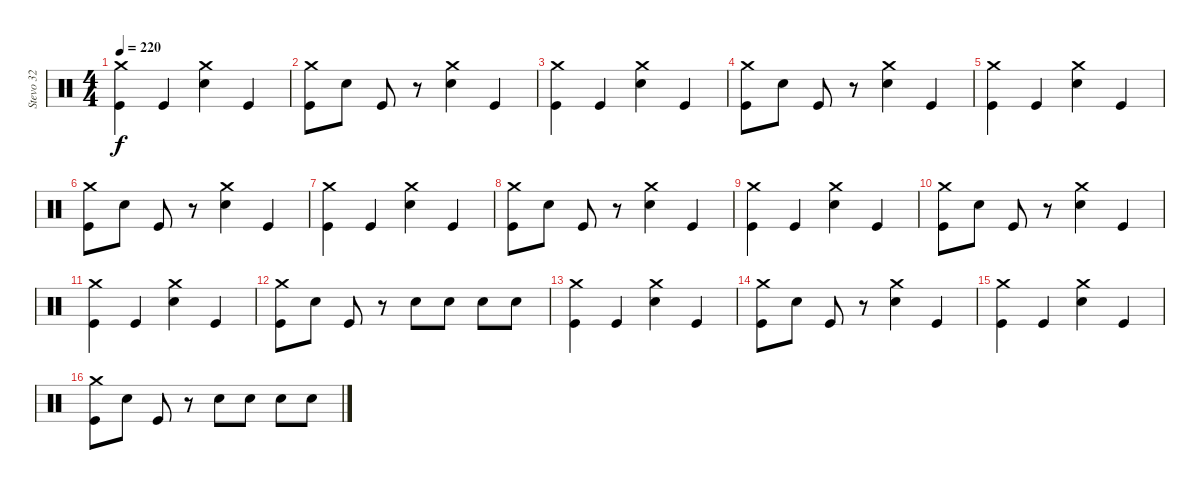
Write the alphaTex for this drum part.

\track ("Stevo 32" "Stevo 32") {instrument percussion}
\staff {score}
\articulation defaults
\ts (4 4)
\tempo 220
\clef neutral
\ks c
("Crash medium (hit)" "Kick (hit)").4{dy f} "Kick (hit)".4 ("Crash medium (hit)" "Electric Snare (hit)").4 "Kick (hit)".4 |
("Crash medium (hit)" "Kick (hit)").8 "Electric Snare (hit)".8 "Kick (hit)".8 r.8 ("Crash medium (hit)" "Electric Snare (hit)").4 "Kick (hit)".4 |
("Crash medium (hit)" "Kick (hit)").4 "Kick (hit)".4 ("Crash medium (hit)" "Electric Snare (hit)").4 "Kick (hit)".4 |
("Crash medium (hit)" "Kick (hit)").8 "Electric Snare (hit)".8 "Kick (hit)".8 r.8 ("Crash medium (hit)" "Electric Snare (hit)").4 "Kick (hit)".4 |
("Crash medium (hit)" "Kick (hit)").4 "Kick (hit)".4 ("Crash medium (hit)" "Electric Snare (hit)").4 "Kick (hit)".4 |
("Crash medium (hit)" "Kick (hit)").8 "Electric Snare (hit)".8 "Kick (hit)".8 r.8 ("Crash medium (hit)" "Electric Snare (hit)").4 "Kick (hit)".4 |
("Crash medium (hit)" "Kick (hit)").4 "Kick (hit)".4 ("Crash medium (hit)" "Electric Snare (hit)").4 "Kick (hit)".4 |
("Crash medium (hit)" "Kick (hit)").8 "Electric Snare (hit)".8 "Kick (hit)".8 r.8 ("Crash medium (hit)" "Electric Snare (hit)").4 "Kick (hit)".4 |
("Crash medium (hit)" "Kick (hit)").4 "Kick (hit)".4 ("Crash medium (hit)" "Electric Snare (hit)").4 "Kick (hit)".4 |
("Crash medium (hit)" "Kick (hit)").8 "Electric Snare (hit)".8 "Kick (hit)".8 r.8 ("Crash medium (hit)" "Electric Snare (hit)").4 "Kick (hit)".4 |
("Crash medium (hit)" "Kick (hit)").4 "Kick (hit)".4 ("Crash medium (hit)" "Electric Snare (hit)").4 "Kick (hit)".4 |
("Crash medium (hit)" "Kick (hit)").8 "Electric Snare (hit)".8 "Kick (hit)".8 r.8 "Electric Snare (hit)".8 "Electric Snare (hit)".8 "Electric Snare (hit)".8 "Electric Snare (hit)".8 |
("Crash medium (hit)" "Kick (hit)").4 "Kick (hit)".4 ("Crash medium (hit)" "Electric Snare (hit)").4 "Kick (hit)".4 |
("Crash medium (hit)" "Kick (hit)").8 "Electric Snare (hit)".8 "Kick (hit)".8 r.8 ("Crash medium (hit)" "Electric Snare (hit)").4 "Kick (hit)".4 |
("Crash medium (hit)" "Kick (hit)").4 "Kick (hit)".4 ("Crash medium (hit)" "Electric Snare (hit)").4 "Kick (hit)".4 |
("Crash medium (hit)" "Kick (hit)").8 "Electric Snare (hit)".8 "Kick (hit)".8 r.8 "Electric Snare (hit)".8 "Electric Snare (hit)".8 "Electric Snare (hit)".8 "Electric Snare (hit)".8
